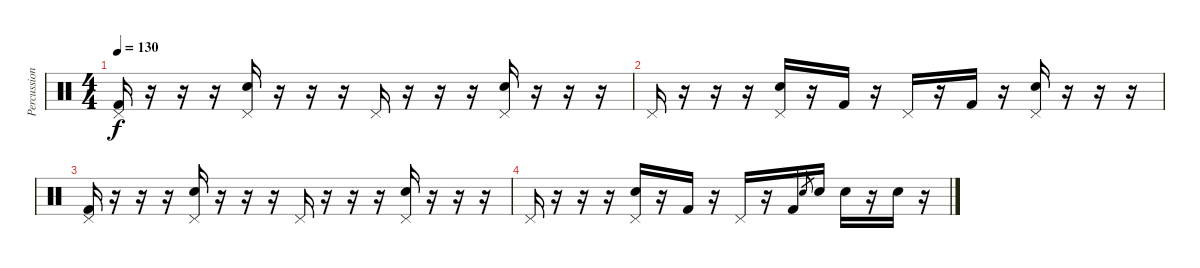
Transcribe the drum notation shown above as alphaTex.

\track ("Percussion" "Percussion") {instrument percussion bank 152}
\staff {score}
\articulation defaults
\ts (4 4)
\tempo 130
\clef neutral
\ks c
("Pedal Hi-Hat (hit)" "Kick (hit) 2").16{dy f} r.16 r.16 r.16 ("Pedal Hi-Hat (hit)" "Electric Snare (hit)").16 r.16 r.16 r.16 "Pedal Hi-Hat (hit)".16 r.16 r.16 r.16 ("Pedal Hi-Hat (hit)" "Electric Snare (hit)").16 r.16 r.16 r.16 |
"Pedal Hi-Hat (hit)".16 r.16 r.16 r.16 ("Pedal Hi-Hat (hit)" "Electric Snare (hit)").16 r.16 "Kick (hit) 2".16 r.16 "Pedal Hi-Hat (hit)".16 r.16 "Kick (hit) 2".16 r.16 ("Pedal Hi-Hat (hit)" "Electric Snare (hit)").16 r.16 r.16 r.16 |
("Pedal Hi-Hat (hit)" "Kick (hit) 2").16 r.16 r.16 r.16 ("Pedal Hi-Hat (hit)" "Electric Snare (hit)").16 r.16 r.16 r.16 "Pedal Hi-Hat (hit)".16 r.16 r.16 r.16 ("Pedal Hi-Hat (hit)" "Electric Snare (hit)").16 r.16 r.16 r.16 |
"Pedal Hi-Hat (hit)".16 r.16 r.16 r.16 ("Pedal Hi-Hat (hit)" "Electric Snare (hit)").16 r.16 "Kick (hit) 2".16 r.16 "Pedal Hi-Hat (hit)".16 r.16 "Kick (hit) 2".16 "Electric Snare (hit)".8{gr} "Electric Snare (hit)".16 "Electric Snare (hit)".16 r.16 "Electric Snare (hit)".16 r.16
